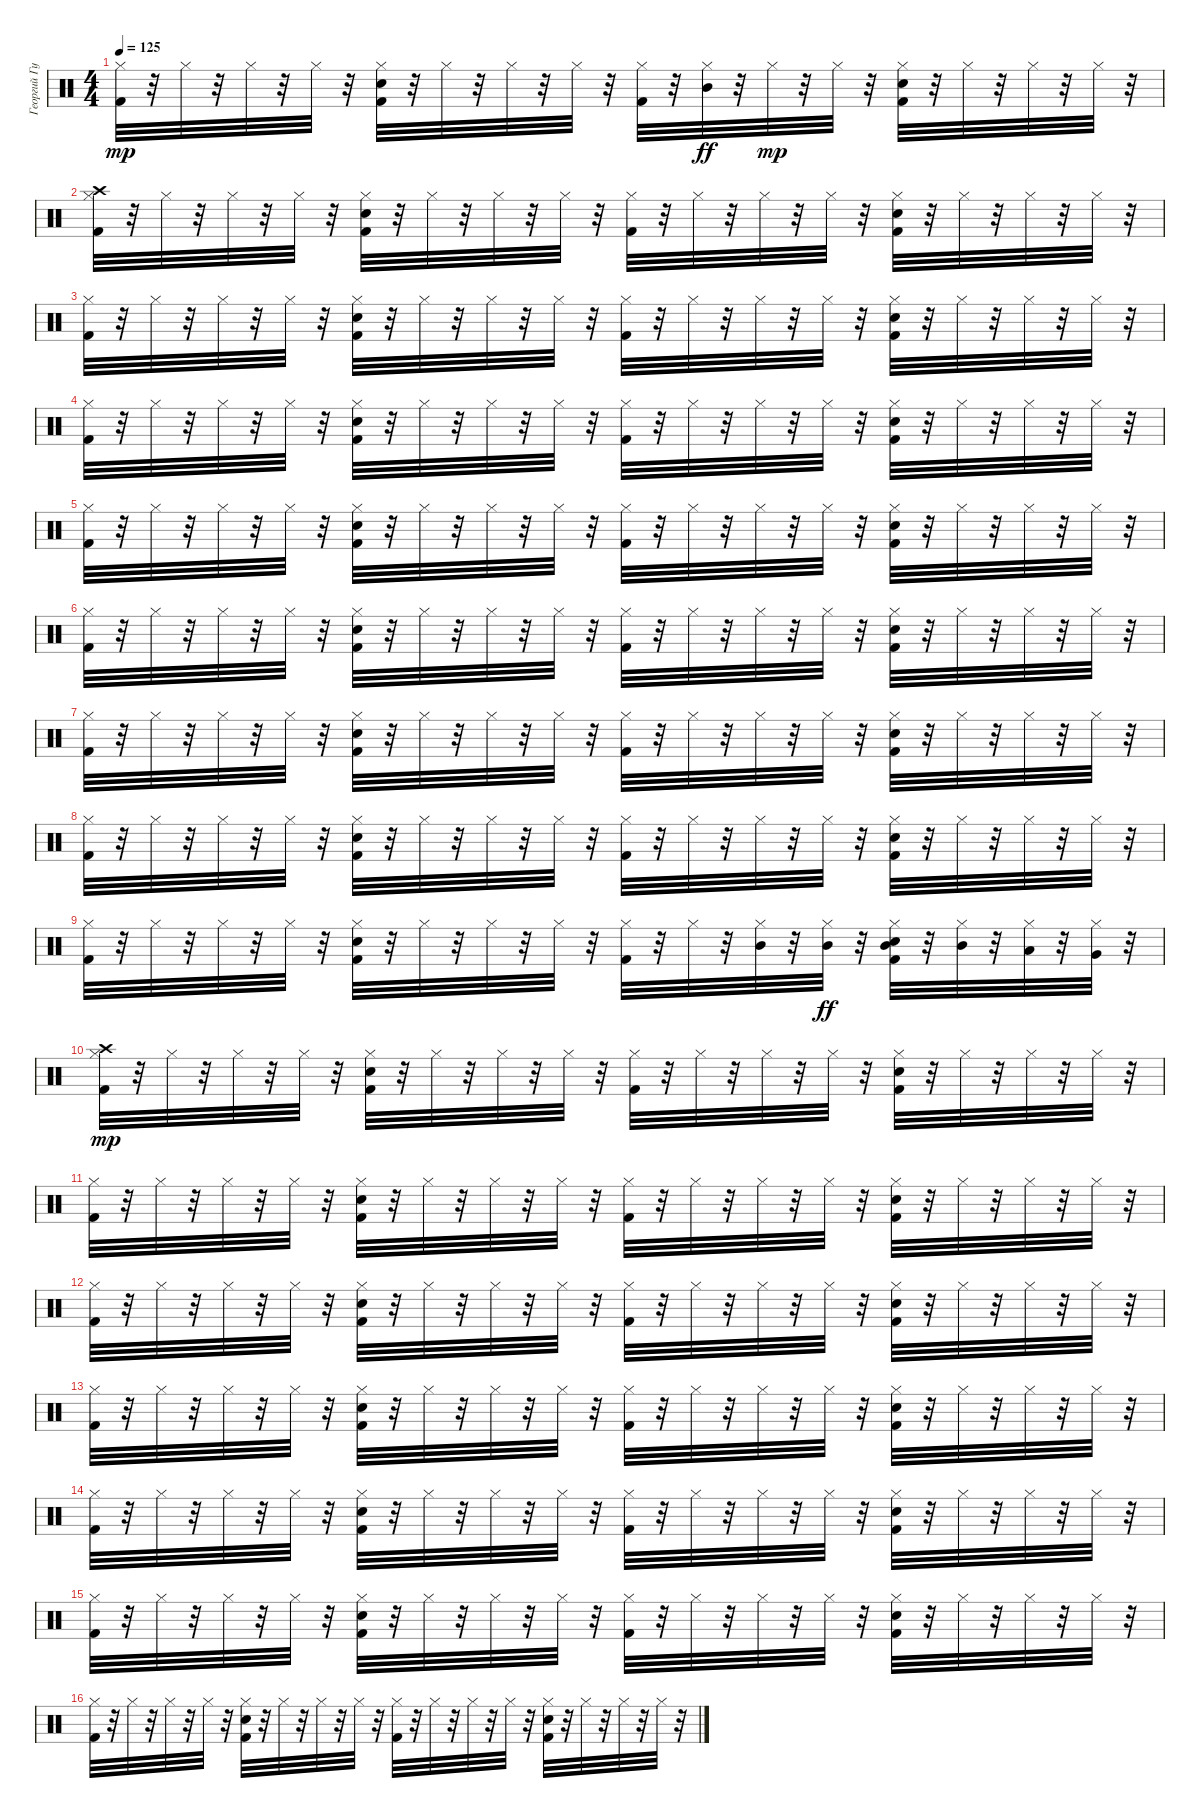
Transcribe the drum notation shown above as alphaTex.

\track ("Георгий Гурьянов" "Георгий Гу") {instrument percussion}
\staff {score}
\articulation defaults
\ts (4 4)
\tempo 125
\clef neutral
\ks c
("Kick (hit) 2" "Hi-Hat (closed)").32{dy mp} r.32 "Hi-Hat (closed)".32 r.32 "Hi-Hat (closed)".32 r.32 "Hi-Hat (closed)".32 r.32 ("Kick (hit) 2" "Snare (hit) 2" "Hi-Hat (closed)").32 r.32 "Hi-Hat (closed)".32 r.32 "Hi-Hat (closed)".32 r.32 "Hi-Hat (closed)".32 r.32 ("Kick (hit) 2" "Hi-Hat (closed)").32 r.32 ("Hi-Hat (closed)" "Mid Tom (hit)").32{dy ff} r.32 "Hi-Hat (closed)".32{dy mp} r.32 "Hi-Hat (closed)".32 r.32 ("Kick (hit) 2" "Snare (hit) 2" "Hi-Hat (closed)").32 r.32 "Hi-Hat (closed)".32 r.32 "Hi-Hat (closed)".32 r.32 "Hi-Hat (closed)".32 r.32 |
("Crash high (hit)" "Kick (hit) 2" "Hi-Hat (closed)").32 r.32 "Hi-Hat (closed)".32 r.32 "Hi-Hat (closed)".32 r.32 "Hi-Hat (closed)".32 r.32 ("Kick (hit) 2" "Snare (hit) 2" "Hi-Hat (closed)").32 r.32 "Hi-Hat (closed)".32 r.32 "Hi-Hat (closed)".32 r.32 "Hi-Hat (closed)".32 r.32 ("Kick (hit) 2" "Hi-Hat (closed)").32 r.32 "Hi-Hat (closed)".32 r.32 "Hi-Hat (closed)".32 r.32 "Hi-Hat (closed)".32 r.32 ("Kick (hit) 2" "Snare (hit) 2" "Hi-Hat (closed)").32 r.32 "Hi-Hat (closed)".32 r.32 "Hi-Hat (closed)".32 r.32 "Hi-Hat (closed)".32 r.32 |
("Kick (hit) 2" "Hi-Hat (closed)").32 r.32 "Hi-Hat (closed)".32 r.32 "Hi-Hat (closed)".32 r.32 "Hi-Hat (closed)".32 r.32 ("Kick (hit) 2" "Snare (hit) 2" "Hi-Hat (closed)").32 r.32 "Hi-Hat (closed)".32 r.32 "Hi-Hat (closed)".32 r.32 "Hi-Hat (closed)".32 r.32 ("Kick (hit) 2" "Hi-Hat (closed)").32 r.32 "Hi-Hat (closed)".32 r.32 "Hi-Hat (closed)".32 r.32 "Hi-Hat (closed)".32 r.32 ("Kick (hit) 2" "Snare (hit) 2" "Hi-Hat (closed)").32 r.32 "Hi-Hat (closed)".32 r.32 "Hi-Hat (closed)".32 r.32 "Hi-Hat (closed)".32 r.32 |
("Kick (hit) 2" "Hi-Hat (closed)").32 r.32 "Hi-Hat (closed)".32 r.32 "Hi-Hat (closed)".32 r.32 "Hi-Hat (closed)".32 r.32 ("Kick (hit) 2" "Snare (hit) 2" "Hi-Hat (closed)").32 r.32 "Hi-Hat (closed)".32 r.32 "Hi-Hat (closed)".32 r.32 "Hi-Hat (closed)".32 r.32 ("Kick (hit) 2" "Hi-Hat (closed)").32 r.32 "Hi-Hat (closed)".32 r.32 "Hi-Hat (closed)".32 r.32 "Hi-Hat (closed)".32 r.32 ("Kick (hit) 2" "Snare (hit) 2" "Hi-Hat (closed)").32 r.32 "Hi-Hat (closed)".32 r.32 "Hi-Hat (closed)".32 r.32 "Hi-Hat (closed)".32 r.32 |
("Kick (hit) 2" "Hi-Hat (closed)").32 r.32 "Hi-Hat (closed)".32 r.32 "Hi-Hat (closed)".32 r.32 "Hi-Hat (closed)".32 r.32 ("Kick (hit) 2" "Snare (hit) 2" "Hi-Hat (closed)").32 r.32 "Hi-Hat (closed)".32 r.32 "Hi-Hat (closed)".32 r.32 "Hi-Hat (closed)".32 r.32 ("Kick (hit) 2" "Hi-Hat (closed)").32 r.32 "Hi-Hat (closed)".32 r.32 "Hi-Hat (closed)".32 r.32 "Hi-Hat (closed)".32 r.32 ("Kick (hit) 2" "Snare (hit) 2" "Hi-Hat (closed)").32 r.32 "Hi-Hat (closed)".32 r.32 "Hi-Hat (closed)".32 r.32 "Hi-Hat (closed)".32 r.32 |
("Kick (hit) 2" "Hi-Hat (closed)").32 r.32 "Hi-Hat (closed)".32 r.32 "Hi-Hat (closed)".32 r.32 "Hi-Hat (closed)".32 r.32 ("Kick (hit) 2" "Snare (hit) 2" "Hi-Hat (closed)").32 r.32 "Hi-Hat (closed)".32 r.32 "Hi-Hat (closed)".32 r.32 "Hi-Hat (closed)".32 r.32 ("Kick (hit) 2" "Hi-Hat (closed)").32 r.32 "Hi-Hat (closed)".32 r.32 "Hi-Hat (closed)".32 r.32 "Hi-Hat (closed)".32 r.32 ("Kick (hit) 2" "Snare (hit) 2" "Hi-Hat (closed)").32 r.32 "Hi-Hat (closed)".32 r.32 "Hi-Hat (closed)".32 r.32 "Hi-Hat (closed)".32 r.32 |
("Kick (hit) 2" "Hi-Hat (closed)").32 r.32 "Hi-Hat (closed)".32 r.32 "Hi-Hat (closed)".32 r.32 "Hi-Hat (closed)".32 r.32 ("Kick (hit) 2" "Snare (hit) 2" "Hi-Hat (closed)").32 r.32 "Hi-Hat (closed)".32 r.32 "Hi-Hat (closed)".32 r.32 "Hi-Hat (closed)".32 r.32 ("Kick (hit) 2" "Hi-Hat (closed)").32 r.32 "Hi-Hat (closed)".32 r.32 "Hi-Hat (closed)".32 r.32 "Hi-Hat (closed)".32 r.32 ("Kick (hit) 2" "Snare (hit) 2" "Hi-Hat (closed)").32 r.32 "Hi-Hat (closed)".32 r.32 "Hi-Hat (closed)".32 r.32 "Hi-Hat (closed)".32 r.32 |
("Kick (hit) 2" "Hi-Hat (closed)").32 r.32 "Hi-Hat (closed)".32 r.32 "Hi-Hat (closed)".32 r.32 "Hi-Hat (closed)".32 r.32 ("Kick (hit) 2" "Snare (hit) 2" "Hi-Hat (closed)").32 r.32 "Hi-Hat (closed)".32 r.32 "Hi-Hat (closed)".32 r.32 "Hi-Hat (closed)".32 r.32 ("Kick (hit) 2" "Hi-Hat (closed)").32 r.32 "Hi-Hat (closed)".32 r.32 "Hi-Hat (closed)".32 r.32 "Hi-Hat (closed)".32 r.32 ("Kick (hit) 2" "Snare (hit) 2" "Hi-Hat (closed)").32 r.32 "Hi-Hat (closed)".32 r.32 "Hi-Hat (closed)".32 r.32 "Hi-Hat (closed)".32 r.32 |
("Kick (hit) 2" "Hi-Hat (closed)").32 r.32 "Hi-Hat (closed)".32 r.32 "Hi-Hat (closed)".32 r.32 "Hi-Hat (closed)".32 r.32 ("Kick (hit) 2" "Snare (hit) 2" "Hi-Hat (closed)").32 r.32 "Hi-Hat (closed)".32 r.32 "Hi-Hat (closed)".32 r.32 "Hi-Hat (closed)".32 r.32 ("Kick (hit) 2" "Hi-Hat (closed)").32 r.32 "Hi-Hat (closed)".32 r.32 ("Mid Tom (hit)" "Hi-Hat (closed)").32 r.32 ("Hi-Hat (closed)" "Mid Tom (hit)").32{dy ff} r.32 ("Kick (hit) 2" "Snare (hit) 2" "Hi-Hat (closed)" "Mid Tom (hit)").32 r.32 ("Hi-Hat (closed)" "Mid Tom (hit)").32 r.32 ("Hi-Hat (closed)" "Low Tom (hit)").32 r.32 ("Hi-Hat (closed)" "Very Low Tom (hit)").32 r.32 |
("Crash high (hit)" "Kick (hit) 2" "Hi-Hat (closed)").32{dy mp} r.32 "Hi-Hat (closed)".32 r.32 "Hi-Hat (closed)".32 r.32 "Hi-Hat (closed)".32 r.32 ("Kick (hit) 2" "Snare (hit) 2" "Hi-Hat (closed)").32 r.32 "Hi-Hat (closed)".32 r.32 "Hi-Hat (closed)".32 r.32 "Hi-Hat (closed)".32 r.32 ("Kick (hit) 2" "Hi-Hat (closed)").32 r.32 "Hi-Hat (closed)".32 r.32 "Hi-Hat (closed)".32 r.32 "Hi-Hat (closed)".32 r.32 ("Kick (hit) 2" "Snare (hit) 2" "Hi-Hat (closed)").32 r.32 "Hi-Hat (closed)".32 r.32 "Hi-Hat (closed)".32 r.32 "Hi-Hat (closed)".32 r.32 |
("Kick (hit) 2" "Hi-Hat (closed)").32 r.32 "Hi-Hat (closed)".32 r.32 "Hi-Hat (closed)".32 r.32 "Hi-Hat (closed)".32 r.32 ("Kick (hit) 2" "Snare (hit) 2" "Hi-Hat (closed)").32 r.32 "Hi-Hat (closed)".32 r.32 "Hi-Hat (closed)".32 r.32 "Hi-Hat (closed)".32 r.32 ("Kick (hit) 2" "Hi-Hat (closed)").32 r.32 "Hi-Hat (closed)".32 r.32 "Hi-Hat (closed)".32 r.32 "Hi-Hat (closed)".32 r.32 ("Kick (hit) 2" "Snare (hit) 2" "Hi-Hat (closed)").32 r.32 "Hi-Hat (closed)".32 r.32 "Hi-Hat (closed)".32 r.32 "Hi-Hat (closed)".32 r.32 |
("Kick (hit) 2" "Hi-Hat (closed)").32 r.32 "Hi-Hat (closed)".32 r.32 "Hi-Hat (closed)".32 r.32 "Hi-Hat (closed)".32 r.32 ("Kick (hit) 2" "Snare (hit) 2" "Hi-Hat (closed)").32 r.32 "Hi-Hat (closed)".32 r.32 "Hi-Hat (closed)".32 r.32 "Hi-Hat (closed)".32 r.32 ("Kick (hit) 2" "Hi-Hat (closed)").32 r.32 "Hi-Hat (closed)".32 r.32 "Hi-Hat (closed)".32 r.32 "Hi-Hat (closed)".32 r.32 ("Kick (hit) 2" "Snare (hit) 2" "Hi-Hat (closed)").32 r.32 "Hi-Hat (closed)".32 r.32 "Hi-Hat (closed)".32 r.32 "Hi-Hat (closed)".32 r.32 |
("Kick (hit) 2" "Hi-Hat (closed)").32 r.32 "Hi-Hat (closed)".32 r.32 "Hi-Hat (closed)".32 r.32 "Hi-Hat (closed)".32 r.32 ("Kick (hit) 2" "Snare (hit) 2" "Hi-Hat (closed)").32 r.32 "Hi-Hat (closed)".32 r.32 "Hi-Hat (closed)".32 r.32 "Hi-Hat (closed)".32 r.32 ("Kick (hit) 2" "Hi-Hat (closed)").32 r.32 "Hi-Hat (closed)".32 r.32 "Hi-Hat (closed)".32 r.32 "Hi-Hat (closed)".32 r.32 ("Kick (hit) 2" "Snare (hit) 2" "Hi-Hat (closed)").32 r.32 "Hi-Hat (closed)".32 r.32 "Hi-Hat (closed)".32 r.32 "Hi-Hat (closed)".32 r.32 |
("Kick (hit) 2" "Hi-Hat (closed)").32 r.32 "Hi-Hat (closed)".32 r.32 "Hi-Hat (closed)".32 r.32 "Hi-Hat (closed)".32 r.32 ("Kick (hit) 2" "Snare (hit) 2" "Hi-Hat (closed)").32 r.32 "Hi-Hat (closed)".32 r.32 "Hi-Hat (closed)".32 r.32 "Hi-Hat (closed)".32 r.32 ("Kick (hit) 2" "Hi-Hat (closed)").32 r.32 "Hi-Hat (closed)".32 r.32 "Hi-Hat (closed)".32 r.32 "Hi-Hat (closed)".32 r.32 ("Kick (hit) 2" "Snare (hit) 2" "Hi-Hat (closed)").32 r.32 "Hi-Hat (closed)".32 r.32 "Hi-Hat (closed)".32 r.32 "Hi-Hat (closed)".32 r.32 |
("Kick (hit) 2" "Hi-Hat (closed)").32 r.32 "Hi-Hat (closed)".32 r.32 "Hi-Hat (closed)".32 r.32 "Hi-Hat (closed)".32 r.32 ("Kick (hit) 2" "Snare (hit) 2" "Hi-Hat (closed)").32 r.32 "Hi-Hat (closed)".32 r.32 "Hi-Hat (closed)".32 r.32 "Hi-Hat (closed)".32 r.32 ("Kick (hit) 2" "Hi-Hat (closed)").32 r.32 "Hi-Hat (closed)".32 r.32 "Hi-Hat (closed)".32 r.32 "Hi-Hat (closed)".32 r.32 ("Kick (hit) 2" "Snare (hit) 2" "Hi-Hat (closed)").32 r.32 "Hi-Hat (closed)".32 r.32 "Hi-Hat (closed)".32 r.32 "Hi-Hat (closed)".32 r.32 |
("Kick (hit) 2" "Hi-Hat (closed)").32 r.32 "Hi-Hat (closed)".32 r.32 "Hi-Hat (closed)".32 r.32 "Hi-Hat (closed)".32 r.32 ("Kick (hit) 2" "Snare (hit) 2" "Hi-Hat (closed)").32 r.32 "Hi-Hat (closed)".32 r.32 "Hi-Hat (closed)".32 r.32 "Hi-Hat (closed)".32 r.32 ("Kick (hit) 2" "Hi-Hat (closed)").32 r.32 "Hi-Hat (closed)".32 r.32 "Hi-Hat (closed)".32 r.32 "Hi-Hat (closed)".32 r.32 ("Kick (hit) 2" "Snare (hit) 2" "Hi-Hat (closed)").32 r.32 "Hi-Hat (closed)".32 r.32 "Hi-Hat (closed)".32 r.32 "Hi-Hat (closed)".32 r.32
